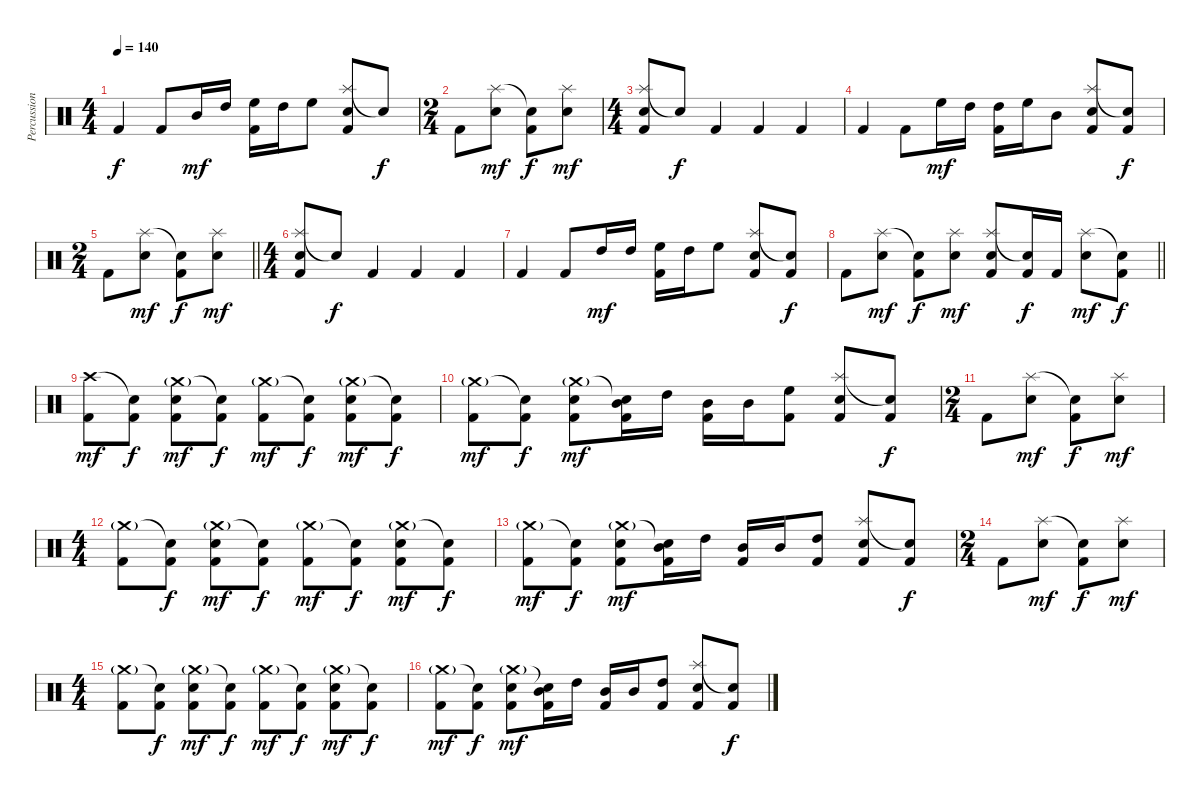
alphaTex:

\track ("Percussion" "Percussion") {instrument percussion}
\staff {score}
\articulation defaults
\ts (4 4)
\tempo 140
\clef neutral
\ks c "Kick (hit) 2".4{dy f} "Kick (hit) 2".8 "Mid Tom (hit)".16{dy mf} "High Tom (hit)".16
("High Floor Tom (hit)" "Kick (hit) 2").16 "High Tom (hit)".16 "High Floor Tom (hit)".8 ("Splash (hit)" "Electric Snare (hit)" "Kick (hit) 2").8 "Snare (hit)"{t}.8{dy f} |
\ts (2 4)
"Kick (hit) 2".8 ("Splash (hit)" "Electric Snare (hit)").8{dy mf} ("Snare (hit)"{t} "Kick (hit) 2").8{dy f} ("Splash (hit)" "Electric Snare (hit)").8{dy mf} |
\ts (4 4)
("Splash (hit)" "Electric Snare (hit)" "Kick (hit) 2").8 "Snare (hit)"{t}.8{dy f} "Kick (hit) 2".4 "Kick (hit) 2".4 "Kick (hit) 2".4 |
"Kick (hit) 2".4 "Kick (hit) 2".8 "High Floor Tom (hit)".16{dy mf} "High Tom (hit)".16 ("High Tom (hit)" "Kick (hit) 2").16 "High Floor Tom (hit)".16 "Mid Tom (hit)".8 ("Splash (hit)" "Electric Snare (hit)" "Kick (hit) 2").8 ("Snare (hit)"{t} "Kick (hit) 2").8{dy f} |
\ts (2 4)
\barLineRight lightlight "Kick (hit) 2".8
("Splash (hit)" "Electric Snare (hit)").8{dy mf} ("Snare (hit)"{t} "Kick (hit) 2").8{dy f} ("Splash (hit)" "Electric Snare (hit)").8{dy mf} |
\ts (4 4)
("Splash (hit)" "Electric Snare (hit)" "Kick (hit) 2").8 "Snare (hit)"{t}.8{dy f} "Kick (hit) 2".4 "Kick (hit) 2".4 "Kick (hit) 2".4 |
"Kick (hit) 2".4 "Kick (hit) 2".8 "High Tom (hit)".16{dy mf} "High Tom (hit)".16 ("High Floor Tom (hit)" "Kick (hit) 2").16 "High Tom (hit)".16 "High Floor Tom (hit)".8 ("Splash (hit)" "Electric Snare (hit)" "Kick (hit) 2").8 ("Snare (hit)"{t} "Kick (hit) 2").8{dy f} |
\barLineRight lightlight "Kick (hit) 2".8
("Splash (hit)" "Electric Snare (hit)").8{dy mf} ("Snare (hit)"{t} "Kick (hit) 2").8{dy f} ("Splash (hit)" "Electric Snare (hit)").8{dy mf} ("Splash (hit)" "Electric Snare (hit)" "Kick (hit) 2").8 ("Snare (hit)"{t} "Kick (hit) 2").16{dy f} "Kick (hit) 2".16 ("Splash (hit)" "Electric Snare (hit)").8{dy mf} ("Snare (hit)"{t} "Kick (hit) 2").8{dy f} |
("Crash high (hit)" "Kick (hit) 2").8{dy mf} ("Snare (hit)"{t} "Kick (hit) 2").8{dy f} ("Crash medium (hit)"{g} "Electric Snare (hit)" "Kick (hit) 2").8{dy mf} ("Snare (hit)"{t} "Kick (hit) 2").8{dy f} ("Crash medium (hit)"{g} "Kick (hit) 2").8{dy mf} ("Snare (hit)"{t} "Kick (hit) 2").8{dy f} ("Crash medium (hit)"{g} "Electric Snare (hit)" "Kick (hit) 2").8{dy mf} ("Snare (hit)"{t} "Kick (hit) 2").8{dy f} |
("Crash medium (hit)"{g} "Kick (hit) 2").8{dy mf} ("Snare (hit)"{t} "Kick (hit) 2").8{dy f} ("Crash medium (hit)"{g} "Electric Snare (hit)" "Kick (hit) 2").8{dy mf} ("Snare (hit)"{t} "Mid Tom (hit)" "Kick (hit) 2").16 "High Tom (hit)".16 ("Mid Tom (hit)" "Kick (hit) 2").16 "Mid Tom (hit)".16 ("High Floor Tom (hit)" "Kick (hit) 2").8 ("Splash (hit)" "Electric Snare (hit)" "Kick (hit) 2").8 ("Snare (hit)"{t} "Kick (hit) 2").8{dy f} |
\ts (2 4)
"Kick (hit) 2".8 ("Splash (hit)" "Electric Snare (hit)").8{dy mf} ("Snare (hit)"{t} "Kick (hit) 2").8{dy f} ("Splash (hit)" "Electric Snare (hit)").8{dy mf} |
\ts (4 4)
("Crash medium (hit)"{g} "Kick (hit) 2").8 ("Snare (hit)"{t} "Kick (hit) 2").8{dy f} ("Crash medium (hit)"{g} "Electric Snare (hit)" "Kick (hit) 2").8{dy mf} ("Snare (hit)"{t} "Kick (hit) 2").8{dy f} ("Crash medium (hit)"{g} "Kick (hit) 2").8{dy mf} ("Snare (hit)"{t} "Kick (hit) 2").8{dy f} ("Crash medium (hit)"{g} "Electric Snare (hit)" "Kick (hit) 2").8{dy mf} ("Snare (hit)"{t} "Kick (hit) 2").8{dy f} |
("Crash medium (hit)"{g} "Kick (hit) 2").8{dy mf} ("Snare (hit)"{t} "Kick (hit) 2").8{dy f} ("Crash medium (hit)"{g} "Electric Snare (hit)" "Kick (hit) 2").8{dy mf} ("Snare (hit)"{t} "Mid Tom (hit)" "Kick (hit) 2").16 "High Tom (hit)".16 ("Mid Tom (hit)" "Kick (hit) 2").16 "Mid Tom (hit)".16 ("High Tom (hit)" "Kick (hit) 2").8 ("Splash (hit)" "Electric Snare (hit)" "Kick (hit) 2").8 ("Snare (hit)"{t} "Kick (hit) 2").8{dy f} |
\ts (2 4)
"Kick (hit) 2".8 ("Splash (hit)" "Electric Snare (hit)").8{dy mf} ("Snare (hit)"{t} "Kick (hit) 2").8{dy f} ("Splash (hit)" "Electric Snare (hit)").8{dy mf} |
\ts (4 4)
("Crash medium (hit)"{g} "Kick (hit) 2").8 ("Snare (hit)"{t} "Kick (hit) 2").8{dy f} ("Crash medium (hit)"{g} "Electric Snare (hit)" "Kick (hit) 2").8{dy mf} ("Snare (hit)"{t} "Kick (hit) 2").8{dy f} ("Crash medium (hit)"{g} "Kick (hit) 2").8{dy mf} ("Snare (hit)"{t} "Kick (hit) 2").8{dy f} ("Crash medium (hit)"{g} "Electric Snare (hit)" "Kick (hit) 2").8{dy mf} ("Snare (hit)"{t} "Kick (hit) 2").8{dy f} |
("Crash medium (hit)"{g} "Kick (hit) 2").8{dy mf} ("Snare (hit)"{t} "Kick (hit) 2").8{dy f} ("Crash medium (hit)"{g} "Electric Snare (hit)" "Kick (hit) 2").8{dy mf} ("Snare (hit)"{t} "Mid Tom (hit)" "Kick (hit) 2").16 "High Tom (hit)".16 ("Mid Tom (hit)" "Kick (hit) 2").16 "Mid Tom (hit)".16 ("High Tom (hit)" "Kick (hit) 2").8 ("Splash (hit)" "Electric Snare (hit)" "Kick (hit) 2").8 ("Snare (hit)"{t} "Kick (hit) 2").8{dy f}
